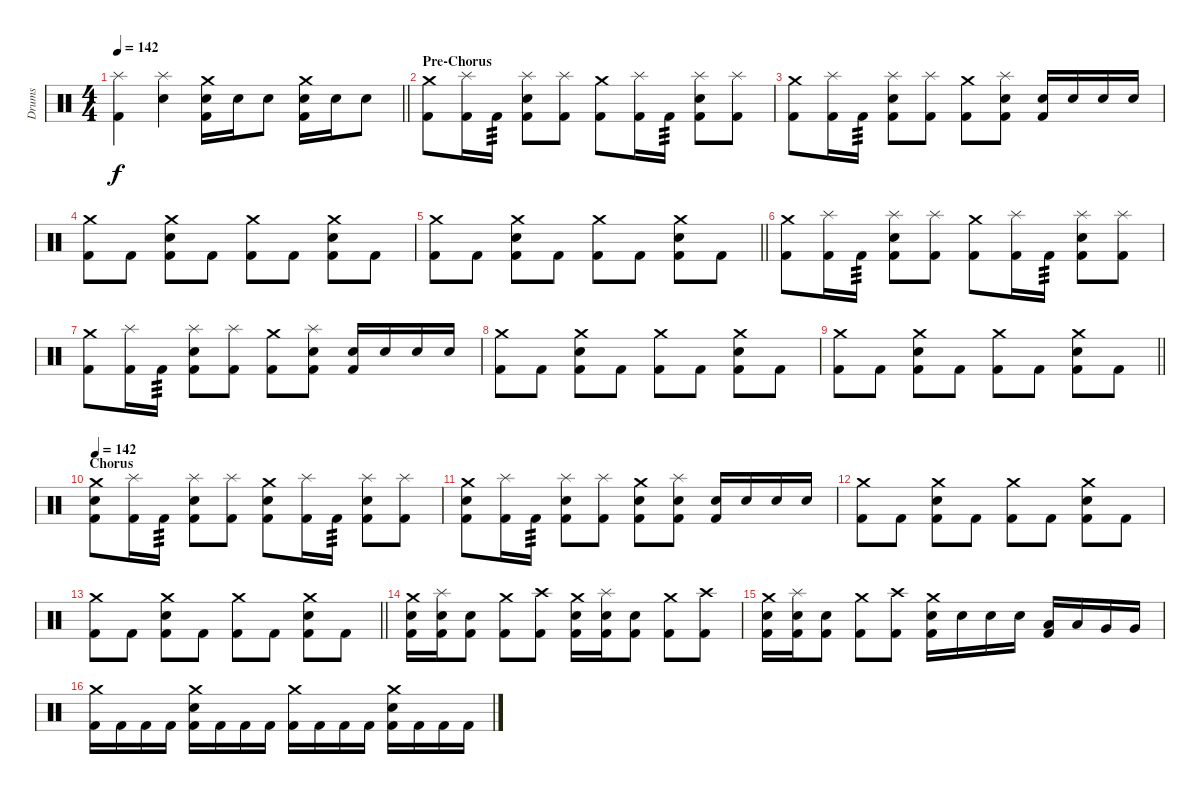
\track ("Drums" "Drums") {instrument percussion}
\staff {score}
\articulation defaults
\ts (4 4)
\tempo 142
\clef neutral
\barLineRight lightlight
\ks c
("Kick (hit) 2" "Splash (hit)").4{dy f} ("Snare (hit) 2" "Splash (hit)").4 ("Kick (hit) 2" "Snare (hit) 2" "Crash medium (hit)").16 "Snare (hit) 2".16 "Snare (hit) 2".8 ("Kick (hit) 2" "Snare (hit) 2" "Crash medium (hit)").16 "Snare (hit) 2".16 "Snare (hit) 2".8 |
\section ("" "Pre-Chorus")
("Kick (hit) 2" "Crash medium (hit)").8 ("Kick (hit) 2" "Splash (hit)").16 "Kick (hit) 2".16{tp 3} ("Kick (hit) 2" "Snare (hit) 2" "Splash (hit)").8 ("Kick (hit) 2" "Splash (hit)").8 ("Kick (hit) 2" "Crash medium (hit)").8 ("Kick (hit) 2" "Splash (hit)").16 "Kick (hit) 2".16{tp 3} ("Kick (hit) 2" "Snare (hit) 2" "Splash (hit)").8 ("Kick (hit) 2" "Splash (hit)").8 |
("Kick (hit) 2" "Crash medium (hit)").8 ("Kick (hit) 2" "Splash (hit)").16 "Kick (hit) 2".16{tp 3} ("Kick (hit) 2" "Snare (hit) 2" "Splash (hit)").8 ("Kick (hit) 2" "Splash (hit)").8 ("Kick (hit) 2" "Crash medium (hit)").8 ("Kick (hit) 2" "Snare (hit) 2" "Splash (hit)").8 ("Kick (hit) 2" "Snare (hit) 2").16 "Snare (hit) 2".16 "Snare (hit) 2".16 "Snare (hit) 2".16 |
("Kick (hit) 2" "Crash medium (hit)").8 "Kick (hit) 2".8 ("Kick (hit) 2" "Snare (hit) 2" "Crash medium (hit)").8 "Kick (hit) 2".8 ("Kick (hit) 2" "Crash medium (hit)").8 "Kick (hit) 2".8 ("Kick (hit) 2" "Snare (hit) 2" "Crash medium (hit)").8 "Kick (hit) 2".8 |
\barLineRight lightlight
("Kick (hit) 2" "Crash medium (hit)").8 "Kick (hit) 2".8 ("Kick (hit) 2" "Snare (hit) 2" "Crash medium (hit)").8 "Kick (hit) 2".8 ("Kick (hit) 2" "Crash medium (hit)").8 "Kick (hit) 2".8 ("Kick (hit) 2" "Snare (hit) 2" "Crash medium (hit)").8 "Kick (hit) 2".8 |
\section ("" "")
("Kick (hit) 2" "Crash medium (hit)").8 ("Kick (hit) 2" "Splash (hit)").16 "Kick (hit) 2".16{tp 3} ("Kick (hit) 2" "Snare (hit) 2" "Splash (hit)").8 ("Kick (hit) 2" "Splash (hit)").8 ("Kick (hit) 2" "Crash medium (hit)").8 ("Kick (hit) 2" "Splash (hit)").16 "Kick (hit) 2".16{tp 3} ("Kick (hit) 2" "Snare (hit) 2" "Splash (hit)").8 ("Kick (hit) 2" "Splash (hit)").8 |
("Kick (hit) 2" "Crash medium (hit)").8 ("Kick (hit) 2" "Splash (hit)").16 "Kick (hit) 2".16{tp 3} ("Kick (hit) 2" "Snare (hit) 2" "Splash (hit)").8 ("Kick (hit) 2" "Splash (hit)").8 ("Kick (hit) 2" "Crash medium (hit)").8 ("Kick (hit) 2" "Snare (hit) 2" "Splash (hit)").8 ("Kick (hit) 2" "Snare (hit) 2").16 "Snare (hit) 2".16 "Snare (hit) 2".16 "Snare (hit) 2".16 |
("Kick (hit) 2" "Crash medium (hit)").8 "Kick (hit) 2".8 ("Kick (hit) 2" "Snare (hit) 2" "Crash medium (hit)").8 "Kick (hit) 2".8 ("Kick (hit) 2" "Crash medium (hit)").8 "Kick (hit) 2".8 ("Kick (hit) 2" "Snare (hit) 2" "Crash medium (hit)").8 "Kick (hit) 2".8 |
\barLineRight lightlight
("Kick (hit) 2" "Crash medium (hit)").8 "Kick (hit) 2".8 ("Kick (hit) 2" "Snare (hit) 2" "Crash medium (hit)").8 "Kick (hit) 2".8 ("Kick (hit) 2" "Crash medium (hit)").8 "Kick (hit) 2".8 ("Kick (hit) 2" "Snare (hit) 2" "Crash medium (hit)").8 "Kick (hit) 2".8 |
\section ("" "Chorus")
\tempo 142
("Kick (hit) 2" "Snare (hit) 2" "Crash medium (hit)").8 ("Kick (hit) 2" "Splash (hit)").16 "Kick (hit) 2".16{tp 3} ("Kick (hit) 2" "Snare (hit) 2" "Splash (hit)").8 ("Kick (hit) 2" "Splash (hit)").8 ("Kick (hit) 2" "Snare (hit) 2" "Crash medium (hit)").8 ("Kick (hit) 2" "Splash (hit)").16 "Kick (hit) 2".16{tp 3} ("Kick (hit) 2" "Snare (hit) 2" "Splash (hit)").8 ("Kick (hit) 2" "Splash (hit)").8 |
("Kick (hit) 2" "Snare (hit) 2" "Crash medium (hit)").8 ("Kick (hit) 2" "Splash (hit)").16 "Kick (hit) 2".16{tp 3} ("Kick (hit) 2" "Snare (hit) 2" "Splash (hit)").8 ("Kick (hit) 2" "Splash (hit)").8 ("Kick (hit) 2" "Snare (hit) 2" "Crash medium (hit)").8 ("Kick (hit) 2" "Snare (hit) 2" "Splash (hit)").8 ("Kick (hit) 2" "Snare (hit) 2").16 "Snare (hit) 2".16 "Snare (hit) 2".16 "Snare (hit) 2".16 |
("Kick (hit) 2" "Crash medium (hit)").8 "Kick (hit) 2".8 ("Kick (hit) 2" "Snare (hit) 2" "Crash medium (hit)").8 "Kick (hit) 2".8 ("Kick (hit) 2" "Crash medium (hit)").8 "Kick (hit) 2".8 ("Kick (hit) 2" "Snare (hit) 2" "Crash medium (hit)").8 "Kick (hit) 2".8 |
\barLineRight lightlight
("Kick (hit) 2" "Crash medium (hit)").8 "Kick (hit) 2".8 ("Kick (hit) 2" "Snare (hit) 2" "Crash medium (hit)").8 "Kick (hit) 2".8 ("Kick (hit) 2" "Crash medium (hit)").8 "Kick (hit) 2".8 ("Kick (hit) 2" "Snare (hit) 2" "Crash medium (hit)").8 "Kick (hit) 2".8 |
\section ("" "")
("Kick (hit) 2" "Snare (hit) 2" "Crash medium (hit)").16 ("Kick (hit) 2" "Snare (hit) 2" "Splash (hit)").16 ("Kick (hit) 2" "Snare (hit) 2").8 ("Kick (hit) 2" "Crash medium (hit)").8 ("Kick (hit) 2" "Crash high (hit)").8 ("Kick (hit) 2" "Snare (hit) 2" "Crash medium (hit)").16 ("Kick (hit) 2" "Snare (hit) 2" "Splash (hit)").16 ("Kick (hit) 2" "Snare (hit) 2").8 ("Kick (hit) 2" "Crash medium (hit)").8 ("Kick (hit) 2" "Crash high (hit)").8 |
("Kick (hit) 2" "Snare (hit) 2" "Crash medium (hit)").16 ("Kick (hit) 2" "Snare (hit) 2" "Splash (hit)").16 ("Kick (hit) 2" "Snare (hit) 2").8 ("Kick (hit) 2" "Crash medium (hit)").8 ("Kick (hit) 2" "Crash high (hit)").8 ("Kick (hit) 2" "Snare (hit) 2" "Crash medium (hit)").16 "Snare (hit) 2".16 "Snare (hit) 2".16 "Snare (hit) 2".16 ("Kick (hit) 2" "Low Tom (hit)").16 "Low Tom (hit)".16 "Very Low Tom (hit)".16 "Very Low Tom (hit)".16 |
("Kick (hit) 2" "Crash medium (hit)").16 "Kick (hit) 2".16 "Kick (hit) 2".16 "Kick (hit) 2".16 ("Kick (hit) 2" "Snare (hit) 2" "Crash medium (hit)").16 "Kick (hit) 2".16 "Kick (hit) 2".16 "Kick (hit) 2".16 ("Kick (hit) 2" "Crash medium (hit)").16 "Kick (hit) 2".16 "Kick (hit) 2".16 "Kick (hit) 2".16 ("Kick (hit) 2" "Snare (hit) 2" "Crash medium (hit)").16 "Kick (hit) 2".16 "Kick (hit) 2".16 "Kick (hit) 2".16
